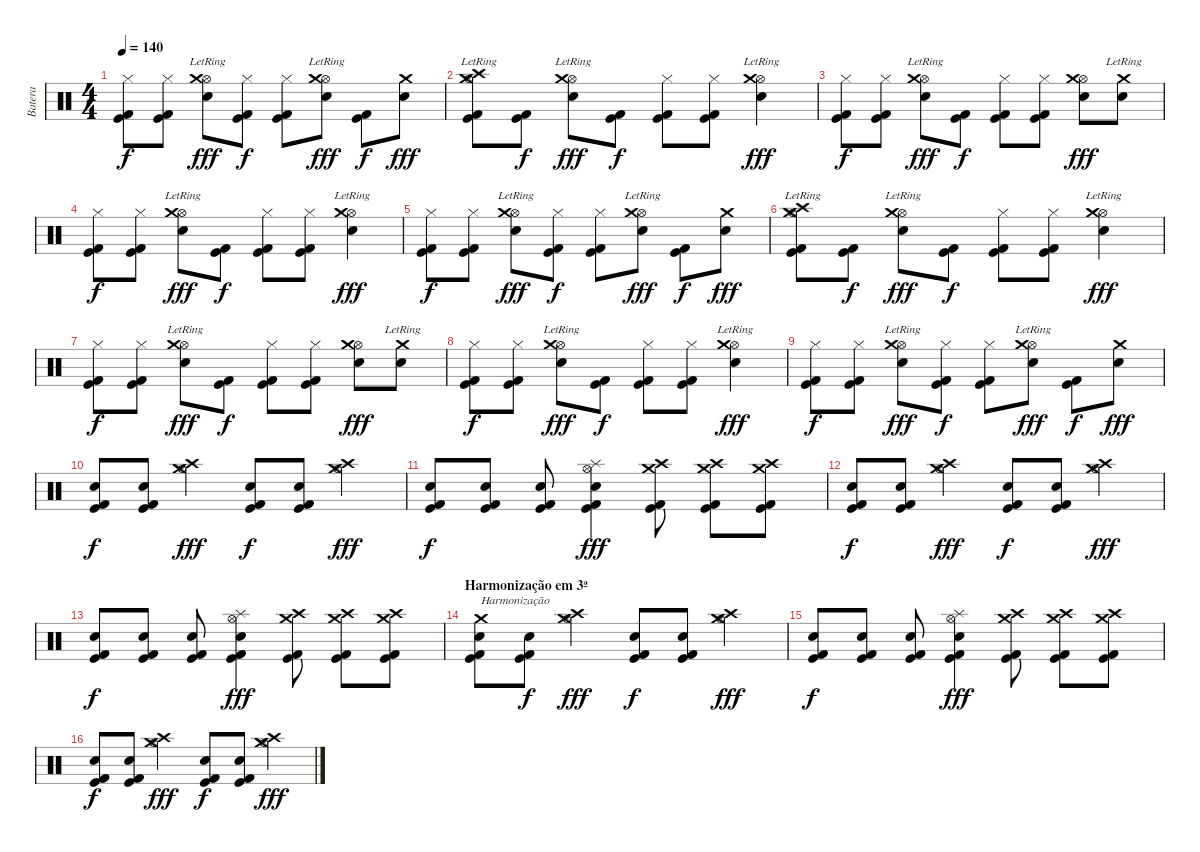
\track ("Batera" "Batera") {instrument percussion}
\staff {score}
\articulation defaults
\ts (4 4)
\tempo 140
\clef neutral
\ks c
("Hi-Hat (closed)" "Kick (hit)" "Kick (hit) 2").8{dy f} ("Hi-Hat (closed)" "Kick (hit)" "Kick (hit) 2").8 ("Hi-Hat (open)" "Electric Snare (hit)" "Crash medium (hit)"{lr}).8{dy fff} ("Hi-Hat (closed)" "Kick (hit)" "Kick (hit) 2").8{dy f} ("Hi-Hat (closed)" "Kick (hit)" "Kick (hit) 2").8 ("Hi-Hat (open)" "Electric Snare (hit)" "Crash medium (hit)"{lr}).8{dy fff} ("Kick (hit)" "Kick (hit) 2").8{dy f} ("Electric Snare (hit)" "Crash medium (hit)").8{dy fff} |
("Hi-Hat (open)" "Kick (hit)" "Crash medium (hit)"{lr} "Crash high (hit)"{lr} "Kick (hit) 2").8 ("Kick (hit)" "Kick (hit) 2").8{dy f} ("Hi-Hat (open)" "Electric Snare (hit)" "Crash medium (hit)"{lr}).8{dy fff} ("Kick (hit)" "Kick (hit) 2").8{dy f} ("Hi-Hat (closed)" "Kick (hit)" "Kick (hit) 2").8 ("Hi-Hat (closed)" "Kick (hit)" "Kick (hit) 2").8 ("Hi-Hat (open)" "Electric Snare (hit)" "Crash medium (hit)"{lr}).4{dy fff} |
("Hi-Hat (closed)" "Kick (hit)" "Kick (hit) 2").8{dy f} ("Hi-Hat (closed)" "Kick (hit)" "Kick (hit) 2").8 ("Hi-Hat (open)" "Electric Snare (hit)" "Crash medium (hit)"{lr}).8{dy fff} ("Kick (hit)" "Kick (hit) 2").8{dy f} ("Hi-Hat (closed)" "Kick (hit)" "Kick (hit) 2").8 ("Hi-Hat (closed)" "Kick (hit)" "Kick (hit) 2").8 ("Hi-Hat (open)" "Electric Snare (hit)" "Crash medium (hit)").8{dy fff} ("Electric Snare (hit)" "Crash medium (hit)"{lr}).8 |
("Hi-Hat (closed)" "Kick (hit)" "Kick (hit) 2").8{dy f} ("Hi-Hat (closed)" "Kick (hit)" "Kick (hit) 2").8 ("Hi-Hat (open)" "Electric Snare (hit)" "Crash medium (hit)"{lr}).8{dy fff} ("Kick (hit)" "Kick (hit) 2").8{dy f} ("Hi-Hat (closed)" "Kick (hit)" "Kick (hit) 2").8 ("Hi-Hat (closed)" "Kick (hit)" "Kick (hit) 2").8 ("Hi-Hat (open)" "Electric Snare (hit)" "Crash medium (hit)"{lr}).4{dy fff} |
("Hi-Hat (closed)" "Kick (hit)" "Kick (hit) 2").8{dy f} ("Hi-Hat (closed)" "Kick (hit)" "Kick (hit) 2").8 ("Hi-Hat (open)" "Electric Snare (hit)" "Crash medium (hit)"{lr}).8{dy fff} ("Hi-Hat (closed)" "Kick (hit)" "Kick (hit) 2").8{dy f} ("Hi-Hat (closed)" "Kick (hit)" "Kick (hit) 2").8 ("Hi-Hat (open)" "Electric Snare (hit)" "Crash medium (hit)"{lr}).8{dy fff} ("Kick (hit)" "Kick (hit) 2").8{dy f} ("Electric Snare (hit)" "Crash medium (hit)").8{dy fff} |
("Hi-Hat (open)" "Kick (hit)" "Crash medium (hit)"{lr} "Crash high (hit)"{lr} "Kick (hit) 2").8 ("Kick (hit)" "Kick (hit) 2").8{dy f} ("Hi-Hat (open)" "Electric Snare (hit)" "Crash medium (hit)"{lr}).8{dy fff} ("Kick (hit)" "Kick (hit) 2").8{dy f} ("Hi-Hat (closed)" "Kick (hit)" "Kick (hit) 2").8 ("Hi-Hat (closed)" "Kick (hit)" "Kick (hit) 2").8 ("Hi-Hat (open)" "Electric Snare (hit)" "Crash medium (hit)"{lr}).4{dy fff} |
("Hi-Hat (closed)" "Kick (hit)" "Kick (hit) 2").8{dy f} ("Hi-Hat (closed)" "Kick (hit)" "Kick (hit) 2").8 ("Hi-Hat (open)" "Electric Snare (hit)" "Crash medium (hit)"{lr}).8{dy fff} ("Kick (hit)" "Kick (hit) 2").8{dy f} ("Hi-Hat (closed)" "Kick (hit)" "Kick (hit) 2").8 ("Hi-Hat (closed)" "Kick (hit)" "Kick (hit) 2").8 ("Hi-Hat (open)" "Electric Snare (hit)" "Crash medium (hit)").8{dy fff} ("Electric Snare (hit)" "Crash medium (hit)"{lr}).8 |
("Hi-Hat (closed)" "Kick (hit)" "Kick (hit) 2").8{dy f} ("Hi-Hat (closed)" "Kick (hit)" "Kick (hit) 2").8 ("Hi-Hat (open)" "Electric Snare (hit)" "Crash medium (hit)"{lr}).8{dy fff} ("Kick (hit)" "Kick (hit) 2").8{dy f} ("Hi-Hat (closed)" "Kick (hit)" "Kick (hit) 2").8 ("Hi-Hat (closed)" "Kick (hit)" "Kick (hit) 2").8 ("Hi-Hat (open)" "Electric Snare (hit)" "Crash medium (hit)"{lr}).4{dy fff} |
("Hi-Hat (closed)" "Kick (hit)" "Kick (hit) 2").8{dy f} ("Hi-Hat (closed)" "Kick (hit)" "Kick (hit) 2").8 ("Hi-Hat (open)" "Electric Snare (hit)" "Crash medium (hit)"{lr}).8{dy fff} ("Hi-Hat (closed)" "Kick (hit)" "Kick (hit) 2").8{dy f} ("Hi-Hat (closed)" "Kick (hit)" "Kick (hit) 2").8 ("Hi-Hat (open)" "Electric Snare (hit)" "Crash medium (hit)"{lr}).8{dy fff} ("Kick (hit)" "Kick (hit) 2").8{dy f} ("Electric Snare (hit)" "Crash medium (hit)").8{dy fff} |
("Kick (hit)" "Electric Snare (hit)" "Kick (hit) 2").8{dy f} ("Kick (hit)" "Electric Snare (hit)" "Kick (hit) 2").8 ("Hi-Hat (open)" "Crash medium (hit)" "Crash high (hit)").4{dy fff} ("Kick (hit)" "Electric Snare (hit)" "Kick (hit) 2").8{dy f} ("Kick (hit)" "Electric Snare (hit)" "Kick (hit) 2").8 ("Hi-Hat (open)" "Crash medium (hit)" "Crash high (hit)").4{dy fff} |
("Kick (hit)" "Electric Snare (hit)" "Kick (hit) 2").8{dy f} ("Kick (hit)" "Electric Snare (hit)" "Kick (hit) 2").8 ("Kick (hit)" "Electric Snare (hit)" "Kick (hit) 2").8 ("Hi-Hat (open)" "Kick (hit)" "Electric Snare (hit)" "Splash (hit)" "Kick (hit) 2").4{dy fff} ("Kick (hit)" "Crash medium (hit)" "Crash high (hit)" "Kick (hit) 2").8 ("Kick (hit)" "Crash medium (hit)" "Crash high (hit)" "Kick (hit) 2").8 ("Kick (hit)" "Crash medium (hit)" "Crash high (hit)" "Kick (hit) 2").8 |
("Kick (hit)" "Electric Snare (hit)" "Kick (hit) 2").8{dy f} ("Kick (hit)" "Electric Snare (hit)" "Kick (hit) 2").8 ("Hi-Hat (open)" "Crash medium (hit)" "Crash high (hit)").4{dy fff} ("Kick (hit)" "Electric Snare (hit)" "Kick (hit) 2").8{dy f} ("Kick (hit)" "Electric Snare (hit)" "Kick (hit) 2").8 ("Hi-Hat (open)" "Crash medium (hit)" "Crash high (hit)").4{dy fff} |
("Kick (hit)" "Electric Snare (hit)" "Kick (hit) 2").8{dy f} ("Kick (hit)" "Electric Snare (hit)" "Kick (hit) 2").8 ("Kick (hit)" "Electric Snare (hit)" "Kick (hit) 2").8 ("Hi-Hat (open)" "Kick (hit)" "Electric Snare (hit)" "Splash (hit)" "Kick (hit) 2").4{dy fff} ("Kick (hit)" "Crash medium (hit)" "Crash high (hit)" "Kick (hit) 2").8 ("Kick (hit)" "Crash medium (hit)" "Crash high (hit)" "Kick (hit) 2").8 ("Kick (hit)" "Crash medium (hit)" "Crash high (hit)" "Kick (hit) 2").8 |
\section ("" "Harmonização em 3ª")
("Kick (hit)" "Electric Snare (hit)" "Crash medium (hit)" "Kick (hit) 2").8{txt "Harmonização"} ("Kick (hit)" "Electric Snare (hit)" "Kick (hit) 2").8{dy f} ("Hi-Hat (open)" "Crash medium (hit)" "Crash high (hit)").4{dy fff} ("Kick (hit)" "Electric Snare (hit)" "Kick (hit) 2").8{dy f} ("Kick (hit)" "Electric Snare (hit)" "Kick (hit) 2").8 ("Hi-Hat (open)" "Crash medium (hit)" "Crash high (hit)").4{dy fff} |
("Kick (hit)" "Electric Snare (hit)" "Kick (hit) 2").8{dy f} ("Kick (hit)" "Electric Snare (hit)" "Kick (hit) 2").8 ("Kick (hit)" "Electric Snare (hit)" "Kick (hit) 2").8 ("Hi-Hat (open)" "Kick (hit)" "Electric Snare (hit)" "Splash (hit)" "Kick (hit) 2").4{dy fff} ("Kick (hit)" "Crash medium (hit)" "Crash high (hit)" "Kick (hit) 2").8 ("Kick (hit)" "Crash medium (hit)" "Crash high (hit)" "Kick (hit) 2").8 ("Kick (hit)" "Crash medium (hit)" "Crash high (hit)" "Kick (hit) 2").8 |
("Kick (hit)" "Electric Snare (hit)" "Kick (hit) 2").8{dy f} ("Kick (hit)" "Electric Snare (hit)" "Kick (hit) 2").8 ("Hi-Hat (open)" "Crash medium (hit)" "Crash high (hit)").4{dy fff} ("Kick (hit)" "Electric Snare (hit)" "Kick (hit) 2").8{dy f} ("Kick (hit)" "Electric Snare (hit)" "Kick (hit) 2").8 ("Hi-Hat (open)" "Crash medium (hit)" "Crash high (hit)").4{dy fff}
